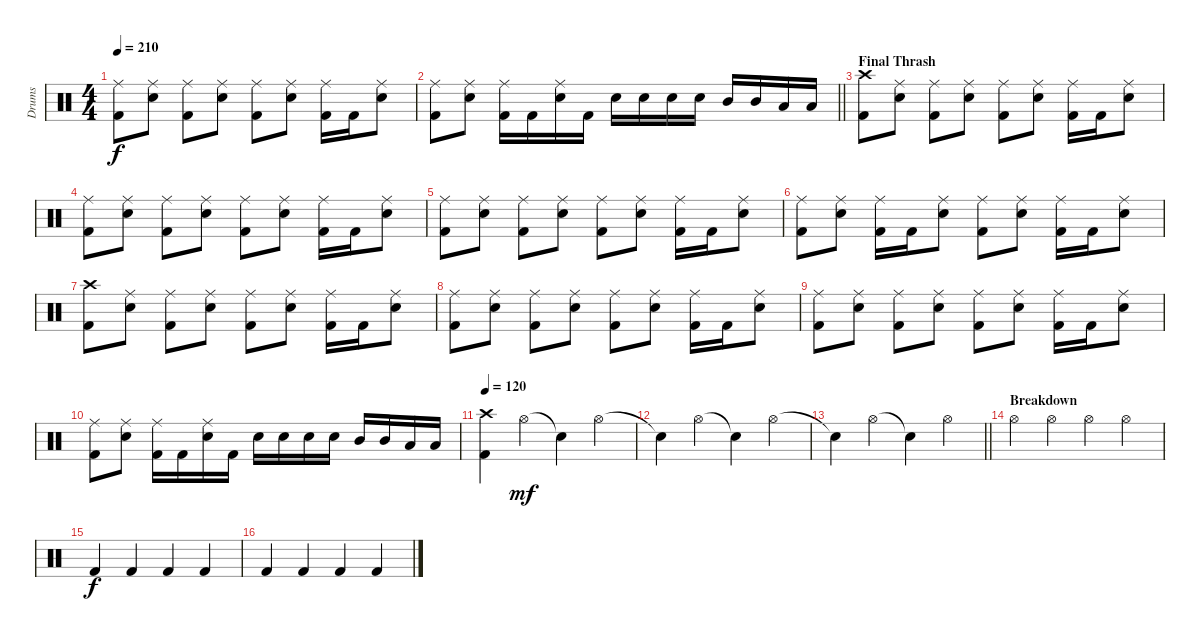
\track ("Drums" "Drums") {instrument percussion}
\staff {score}
\articulation defaults
\ts (4 4)
\tempo 210
\clef neutral
\ks c
("Ride (middle)" "Kick (hit) 2").8{dy f} ("Ride (middle)" "Snare (hit) 2").8 ("Ride (middle)" "Kick (hit) 2").8 ("Ride (middle)" "Snare (hit) 2").8 ("Ride (middle)" "Kick (hit) 2").8 ("Ride (middle)" "Snare (hit) 2").8 ("Ride (middle)" "Kick (hit) 2").16 "Kick (hit) 2".16 ("Ride (middle)" "Snare (hit) 2").8 |
\barLineRight lightlight
("Ride (middle)" "Kick (hit) 2").8 ("Ride (middle)" "Snare (hit) 2").8 ("Ride (middle)" "Kick (hit) 2").16 "Kick (hit) 2".16 ("Ride (middle)" "Snare (hit) 2").16 "Kick (hit) 2".16 "Snare (hit) 2".16 "Snare (hit) 2".16 "Snare (hit) 2".16 "Snare (hit) 2".16 "Mid Tom (hit)".16 "Mid Tom (hit)".16 "Low Tom (hit)".16 "Low Tom (hit)".16 |
\section ("" "Final Thrash")
("Crash high (hit)" "Kick (hit) 2").8 ("Ride (middle)" "Snare (hit) 2").8 ("Ride (middle)" "Kick (hit) 2").8 ("Ride (middle)" "Snare (hit) 2").8 ("Ride (middle)" "Kick (hit) 2").8 ("Ride (middle)" "Snare (hit) 2").8 ("Ride (middle)" "Kick (hit) 2").16 "Kick (hit) 2".16 ("Ride (middle)" "Snare (hit) 2").8 |
("Ride (middle)" "Kick (hit) 2").8 ("Ride (middle)" "Snare (hit) 2").8 ("Ride (middle)" "Kick (hit) 2").8 ("Ride (middle)" "Snare (hit) 2").8 ("Ride (middle)" "Kick (hit) 2").8 ("Ride (middle)" "Snare (hit) 2").8 ("Ride (middle)" "Kick (hit) 2").16 "Kick (hit) 2".16 ("Ride (middle)" "Snare (hit) 2").8 |
("Ride (middle)" "Kick (hit) 2").8 ("Ride (middle)" "Snare (hit) 2").8 ("Ride (middle)" "Kick (hit) 2").8 ("Ride (middle)" "Snare (hit) 2").8 ("Ride (middle)" "Kick (hit) 2").8 ("Ride (middle)" "Snare (hit) 2").8 ("Ride (middle)" "Kick (hit) 2").16 "Kick (hit) 2".16 ("Ride (middle)" "Snare (hit) 2").8 |
("Ride (middle)" "Kick (hit) 2").8 ("Ride (middle)" "Snare (hit) 2").8 ("Ride (middle)" "Kick (hit) 2").16 "Kick (hit) 2".16 ("Ride (middle)" "Snare (hit) 2").8 ("Ride (middle)" "Kick (hit) 2").8 ("Ride (middle)" "Snare (hit) 2").8 ("Ride (middle)" "Kick (hit) 2").16 "Kick (hit) 2".16 ("Ride (middle)" "Snare (hit) 2").8 |
("Crash high (hit)" "Kick (hit) 2").8 ("Ride (middle)" "Snare (hit) 2").8 ("Ride (middle)" "Kick (hit) 2").8 ("Ride (middle)" "Snare (hit) 2").8 ("Ride (middle)" "Kick (hit) 2").8 ("Ride (middle)" "Snare (hit) 2").8 ("Ride (middle)" "Kick (hit) 2").16 "Kick (hit) 2".16 ("Ride (middle)" "Snare (hit) 2").8 |
("Ride (middle)" "Kick (hit) 2").8 ("Ride (middle)" "Snare (hit) 2").8 ("Ride (middle)" "Kick (hit) 2").8 ("Ride (middle)" "Snare (hit) 2").8 ("Ride (middle)" "Kick (hit) 2").8 ("Ride (middle)" "Snare (hit) 2").8 ("Ride (middle)" "Kick (hit) 2").16 "Kick (hit) 2".16 ("Ride (middle)" "Snare (hit) 2").8 |
("Ride (middle)" "Kick (hit) 2").8 ("Ride (middle)" "Snare (hit) 2").8 ("Ride (middle)" "Kick (hit) 2").8 ("Ride (middle)" "Snare (hit) 2").8 ("Ride (middle)" "Kick (hit) 2").8 ("Ride (middle)" "Snare (hit) 2").8 ("Ride (middle)" "Kick (hit) 2").16 "Kick (hit) 2".16 ("Ride (middle)" "Snare (hit) 2").8 |
("Ride (middle)" "Kick (hit) 2").8 ("Ride (middle)" "Snare (hit) 2").8 ("Ride (middle)" "Kick (hit) 2").16 "Kick (hit) 2".16 ("Ride (middle)" "Snare (hit) 2").16 "Kick (hit) 2".16 "Snare (hit) 2".16 "Snare (hit) 2".16 "Snare (hit) 2".16 "Snare (hit) 2".16 "Mid Tom (hit)".16 "Mid Tom (hit)".16 "Low Tom (hit)".16 "Low Tom (hit)".16 |
\tempo 120
("Crash high (hit)" "Kick (hit) 2").4 "Hi-Hat (open)".4{dy mf} "Snare (hit)"{t}.4 "Hi-Hat (open)".4 |
"Snare (hit)"{t}.4 "Hi-Hat (open)".4 "Snare (hit)"{t}.4 "Hi-Hat (open)".4 |
\barLineRight lightlight "Snare (hit)"{t}.4 "Hi-Hat (open)".4 "Snare (hit)"{t}.4 "Hi-Hat (open)".4
|
\section ("" "Breakdown")
"Hi-Hat (open)".4 "Hi-Hat (open)".4 "Hi-Hat (open)".4 "Hi-Hat (open)".4 |
"Kick (hit) 2".4{dy f} "Kick (hit) 2".4 "Kick (hit) 2".4 "Kick (hit) 2".4 |
"Kick (hit) 2".4 "Kick (hit) 2".4 "Kick (hit) 2".4 "Kick (hit) 2".4
